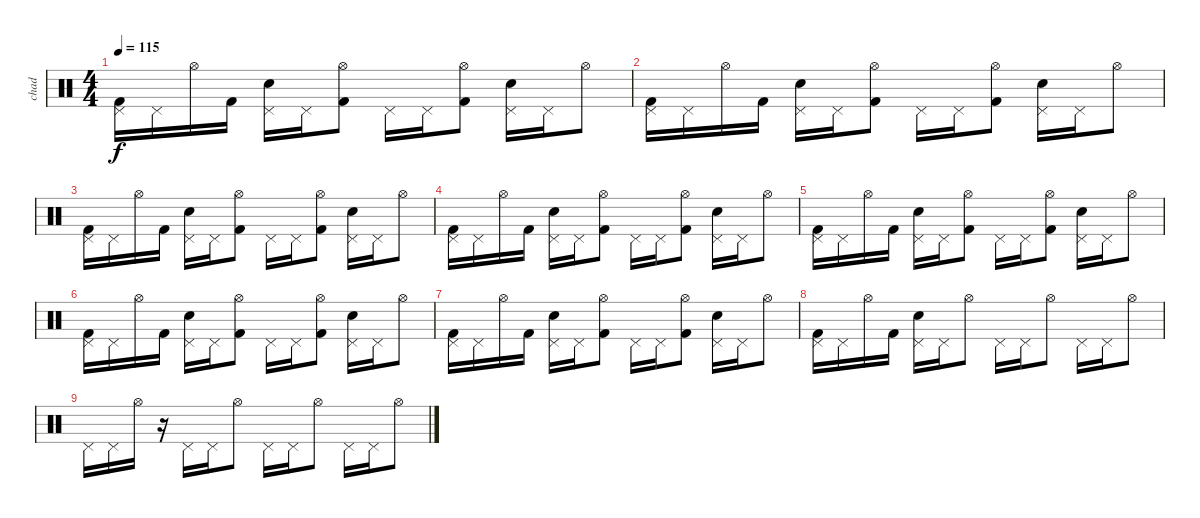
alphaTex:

\track ("chad" "chad") {instrument percussion}
\staff {score}
\articulation defaults
\ts (4 4)
\tempo 115
\clef neutral
\ks c
("Pedal Hi-Hat (hit)" "Kick (hit) 2").16{dy f} "Pedal Hi-Hat (hit)".16 "Hi-Hat (open)".16 "Kick (hit) 2".16 ("Pedal Hi-Hat (hit)" "Electric Snare (hit)").16 "Pedal Hi-Hat (hit)".16 ("Hi-Hat (open)" "Kick (hit) 2").8 "Pedal Hi-Hat (hit)".16 "Pedal Hi-Hat (hit)".16 ("Hi-Hat (open)" "Kick (hit) 2").8 ("Pedal Hi-Hat (hit)" "Electric Snare (hit)").16 "Pedal Hi-Hat (hit)".16 "Hi-Hat (open)".8 |
("Pedal Hi-Hat (hit)" "Kick (hit) 2").16 "Pedal Hi-Hat (hit)".16 "Hi-Hat (open)".16 "Kick (hit) 2".16 ("Pedal Hi-Hat (hit)" "Electric Snare (hit)").16 "Pedal Hi-Hat (hit)".16 ("Hi-Hat (open)" "Kick (hit) 2").8 "Pedal Hi-Hat (hit)".16 "Pedal Hi-Hat (hit)".16 ("Hi-Hat (open)" "Kick (hit) 2").8 ("Pedal Hi-Hat (hit)" "Electric Snare (hit)").16 "Pedal Hi-Hat (hit)".16 "Hi-Hat (open)".8 |
("Pedal Hi-Hat (hit)" "Kick (hit) 2").16 "Pedal Hi-Hat (hit)".16 "Hi-Hat (open)".16 "Kick (hit) 2".16 ("Pedal Hi-Hat (hit)" "Electric Snare (hit)").16 "Pedal Hi-Hat (hit)".16 ("Hi-Hat (open)" "Kick (hit) 2").8 "Pedal Hi-Hat (hit)".16 "Pedal Hi-Hat (hit)".16 ("Hi-Hat (open)" "Kick (hit) 2").8 ("Pedal Hi-Hat (hit)" "Electric Snare (hit)").16 "Pedal Hi-Hat (hit)".16 "Hi-Hat (open)".8 |
("Pedal Hi-Hat (hit)" "Kick (hit) 2").16 "Pedal Hi-Hat (hit)".16 "Hi-Hat (open)".16 "Kick (hit) 2".16 ("Pedal Hi-Hat (hit)" "Electric Snare (hit)").16 "Pedal Hi-Hat (hit)".16 ("Hi-Hat (open)" "Kick (hit) 2").8 "Pedal Hi-Hat (hit)".16 "Pedal Hi-Hat (hit)".16 ("Hi-Hat (open)" "Kick (hit) 2").8 ("Pedal Hi-Hat (hit)" "Electric Snare (hit)").16 "Pedal Hi-Hat (hit)".16 "Hi-Hat (open)".8 |
("Pedal Hi-Hat (hit)" "Kick (hit) 2").16 "Pedal Hi-Hat (hit)".16 "Hi-Hat (open)".16 "Kick (hit) 2".16 ("Pedal Hi-Hat (hit)" "Electric Snare (hit)").16 "Pedal Hi-Hat (hit)".16 ("Hi-Hat (open)" "Kick (hit) 2").8 "Pedal Hi-Hat (hit)".16 "Pedal Hi-Hat (hit)".16 ("Hi-Hat (open)" "Kick (hit) 2").8 ("Pedal Hi-Hat (hit)" "Electric Snare (hit)").16 "Pedal Hi-Hat (hit)".16 "Hi-Hat (open)".8 |
("Pedal Hi-Hat (hit)" "Kick (hit) 2").16 "Pedal Hi-Hat (hit)".16 "Hi-Hat (open)".16 "Kick (hit) 2".16 ("Pedal Hi-Hat (hit)" "Electric Snare (hit)").16 "Pedal Hi-Hat (hit)".16 ("Hi-Hat (open)" "Kick (hit) 2").8 "Pedal Hi-Hat (hit)".16 "Pedal Hi-Hat (hit)".16 ("Hi-Hat (open)" "Kick (hit) 2").8 ("Pedal Hi-Hat (hit)" "Electric Snare (hit)").16 "Pedal Hi-Hat (hit)".16 "Hi-Hat (open)".8 |
("Pedal Hi-Hat (hit)" "Kick (hit) 2").16 "Pedal Hi-Hat (hit)".16 "Hi-Hat (open)".16 "Kick (hit) 2".16 ("Pedal Hi-Hat (hit)" "Electric Snare (hit)").16 "Pedal Hi-Hat (hit)".16 ("Hi-Hat (open)" "Kick (hit) 2").8 "Pedal Hi-Hat (hit)".16 "Pedal Hi-Hat (hit)".16 ("Hi-Hat (open)" "Kick (hit) 2").8 ("Pedal Hi-Hat (hit)" "Electric Snare (hit)").16 "Pedal Hi-Hat (hit)".16 "Hi-Hat (open)".8 |
("Pedal Hi-Hat (hit)" "Kick (hit) 2").16 "Pedal Hi-Hat (hit)".16 "Hi-Hat (open)".16 "Kick (hit) 2".16 ("Pedal Hi-Hat (hit)" "Electric Snare (hit)").16 "Pedal Hi-Hat (hit)".16 "Hi-Hat (open)".8 "Pedal Hi-Hat (hit)".16 "Pedal Hi-Hat (hit)".16 "Hi-Hat (open)".8 "Pedal Hi-Hat (hit)".16 "Pedal Hi-Hat (hit)".16 "Hi-Hat (open)".8 |
"Pedal Hi-Hat (hit)".16 "Pedal Hi-Hat (hit)".16 "Hi-Hat (open)".16 r.16 "Pedal Hi-Hat (hit)".16 "Pedal Hi-Hat (hit)".16 "Hi-Hat (open)".8 "Pedal Hi-Hat (hit)".16 "Pedal Hi-Hat (hit)".16 "Hi-Hat (open)".8 "Pedal Hi-Hat (hit)".16 "Pedal Hi-Hat (hit)".16 "Hi-Hat (open)".8
